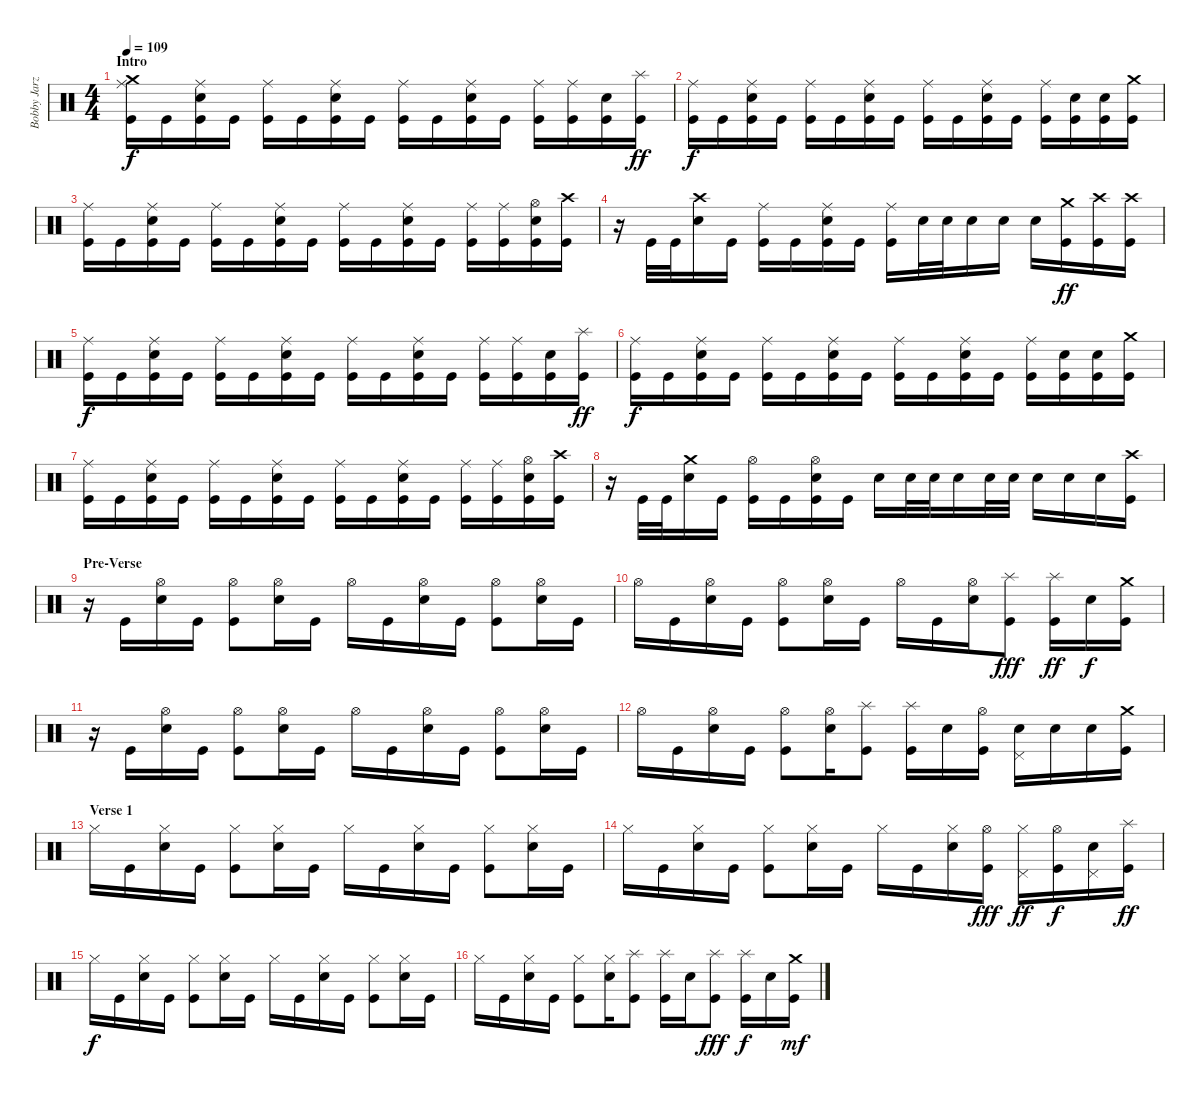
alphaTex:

\track ("Bobby Jarzombek" "Bobby Jarz") {instrument percussion}
\staff {score}
\articulation defaults
\ts (4 4)
\section ("" "Intro")
\tempo 109
\clef neutral
\ks c
("Kick (hit)" "Ride (middle)" "Crash medium (hit)").16{dy f} "Kick (hit)".16 ("Kick (hit)" "Ride (middle)" "Electric Snare (hit)").16 "Kick (hit)".16 ("Kick (hit)" "Ride (middle)").16 "Kick (hit)".16 ("Kick (hit)" "Ride (middle)" "Electric Snare (hit)").16 "Kick (hit)".16 ("Kick (hit)" "Ride (middle)").16 "Kick (hit)".16 ("Kick (hit)" "Ride (middle)" "Electric Snare (hit)").16 "Kick (hit)".16 ("Kick (hit)" "Ride (middle)").16 ("Kick (hit)" "Ride (middle)").16 ("Kick (hit)" "Electric Snare (hit)").16 ("Kick (hit)" "Splash (hit)").16{dy ff} |
("Kick (hit)" "Ride (middle)").16{dy f} "Kick (hit)".16 ("Kick (hit)" "Ride (middle)" "Electric Snare (hit)").16 "Kick (hit)".16 ("Kick (hit)" "Ride (middle)").16 "Kick (hit)".16 ("Kick (hit)" "Ride (middle)" "Electric Snare (hit)").16 "Kick (hit)".16 ("Kick (hit)" "Ride (middle)").16 "Kick (hit)".16 ("Kick (hit)" "Ride (middle)" "Electric Snare (hit)").16 "Kick (hit)".16 ("Kick (hit)" "Ride (middle)").16 ("Kick (hit)" "Electric Snare (hit)").16 ("Kick (hit)" "Electric Snare (hit)").16 ("Kick (hit)" "Crash medium (hit)").16 |
("Kick (hit)" "Ride (middle)").16 "Kick (hit)".16 ("Kick (hit)" "Ride (middle)" "Electric Snare (hit)").16 "Kick (hit)".16 ("Kick (hit)" "Ride (middle)").16 "Kick (hit)".16 ("Kick (hit)" "Ride (middle)" "Electric Snare (hit)").16 "Kick (hit)".16 ("Kick (hit)" "Ride (middle)").16 "Kick (hit)".16 ("Kick (hit)" "Ride (middle)" "Electric Snare (hit)").16 "Kick (hit)".16 ("Kick (hit)" "Ride (middle)").16 ("Kick (hit)" "Ride (middle)").16 ("Kick (hit)" "Hi-Hat (open)" "Electric Snare (hit)").16 ("Kick (hit)" "Crash high (hit)").16 |
r.16 "Kick (hit)".32 "Kick (hit)".32 ("Crash high (hit)" "Electric Snare (hit)").16 "Kick (hit)".16 ("Kick (hit)" "Ride (middle)").16 "Kick (hit)".16 ("Kick (hit)" "Ride (middle)" "Electric Snare (hit)").16 "Kick (hit)".16 ("Kick (hit)" "Ride (middle)").16 "Electric Snare (hit)".32 "Electric Snare (hit)".32 "Electric Snare (hit)".16 "Electric Snare (hit)".16 "Electric Snare (hit)".16 ("Crash medium (hit)" "Kick (hit)").16{dy ff} ("Crash high (hit)" "Kick (hit)").16 ("Crash high (hit)" "Kick (hit)").16 |
("Kick (hit)" "Ride (middle)").16{dy f} "Kick (hit)".16 ("Kick (hit)" "Ride (middle)" "Electric Snare (hit)").16 "Kick (hit)".16 ("Kick (hit)" "Ride (middle)").16 "Kick (hit)".16 ("Kick (hit)" "Ride (middle)" "Electric Snare (hit)").16 "Kick (hit)".16 ("Kick (hit)" "Ride (middle)").16 "Kick (hit)".16 ("Kick (hit)" "Ride (middle)" "Electric Snare (hit)").16 "Kick (hit)".16 ("Kick (hit)" "Ride (middle)").16 ("Kick (hit)" "Ride (middle)").16 ("Kick (hit)" "Electric Snare (hit)").16 ("Kick (hit)" "Splash (hit)").16{dy ff} |
("Kick (hit)" "Ride (middle)").16{dy f} "Kick (hit)".16 ("Kick (hit)" "Ride (middle)" "Electric Snare (hit)").16 "Kick (hit)".16 ("Kick (hit)" "Ride (middle)").16 "Kick (hit)".16 ("Kick (hit)" "Ride (middle)" "Electric Snare (hit)").16 "Kick (hit)".16 ("Kick (hit)" "Ride (middle)").16 "Kick (hit)".16 ("Kick (hit)" "Ride (middle)" "Electric Snare (hit)").16 "Kick (hit)".16 ("Kick (hit)" "Ride (middle)").16 ("Kick (hit)" "Electric Snare (hit)").16 ("Kick (hit)" "Electric Snare (hit)").16 ("Kick (hit)" "Crash medium (hit)").16 |
("Kick (hit)" "Ride (middle)").16 "Kick (hit)".16 ("Kick (hit)" "Ride (middle)" "Electric Snare (hit)").16 "Kick (hit)".16 ("Kick (hit)" "Ride (middle)").16 "Kick (hit)".16 ("Kick (hit)" "Ride (middle)" "Electric Snare (hit)").16 "Kick (hit)".16 ("Kick (hit)" "Ride (middle)").16 "Kick (hit)".16 ("Kick (hit)" "Ride (middle)" "Electric Snare (hit)").16 "Kick (hit)".16 ("Kick (hit)" "Ride (middle)").16 ("Kick (hit)" "Ride (middle)").16 ("Kick (hit)" "Hi-Hat (open)" "Electric Snare (hit)").16 ("Kick (hit)" "Crash high (hit)").16 |
r.16 "Kick (hit)".32 "Kick (hit)".32 ("Crash medium (hit)" "Electric Snare (hit)").16 "Kick (hit)".16 ("Kick (hit)" "Hi-Hat (open)").16 "Kick (hit)".16 ("Kick (hit)" "Electric Snare (hit)" "Hi-Hat (open)").16 "Kick (hit)".16 "Electric Snare (hit)".16 "Electric Snare (hit)".32 "Electric Snare (hit)".32 "Electric Snare (hit)".16 "Electric Snare (hit)".32 "Electric Snare (hit)".32 "Electric Snare (hit)".16 "Electric Snare (hit)".16 "Electric Snare (hit)".16 ("Crash high (hit)" "Kick (hit)").16 |
\section ("" "Pre-Verse")
r.16 "Kick (hit)".16 ("Hi-Hat (open)" "Electric Snare (hit)").16 "Kick (hit)".16 ("Hi-Hat (open)" "Kick (hit)").8 ("Hi-Hat (open)" "Electric Snare (hit)").16 "Kick (hit)".16 "Hi-Hat (open)".16 "Kick (hit)".16 ("Hi-Hat (open)" "Electric Snare (hit)").16 "Kick (hit)".16 ("Hi-Hat (open)" "Kick (hit)").8 ("Hi-Hat (open)" "Electric Snare (hit)").16 "Kick (hit)".16 |
"Hi-Hat (open)".16 "Kick (hit)".16 ("Hi-Hat (open)" "Electric Snare (hit)").16 "Kick (hit)".16 ("Hi-Hat (open)" "Kick (hit)").8 ("Hi-Hat (open)" "Electric Snare (hit)").16 "Kick (hit)".16 "Hi-Hat (open)".16 "Kick (hit)".16 ("Hi-Hat (open)" "Electric Snare (hit)").16 ("Splash (hit)" "Kick (hit)").8{dy fff} ("Splash (hit)" "Kick (hit)").16{dy ff} "Electric Snare (hit)".16{dy f} ("Crash medium (hit)" "Kick (hit)").16 |
r.16 "Kick (hit)".16 ("Hi-Hat (open)" "Electric Snare (hit)").16 "Kick (hit)".16 ("Hi-Hat (open)" "Kick (hit)").8 ("Hi-Hat (open)" "Electric Snare (hit)").16 "Kick (hit)".16 "Hi-Hat (open)".16 "Kick (hit)".16 ("Hi-Hat (open)" "Electric Snare (hit)").16 "Kick (hit)".16 ("Hi-Hat (open)" "Kick (hit)").8 ("Hi-Hat (open)" "Electric Snare (hit)").16 "Kick (hit)".16 |
"Hi-Hat (open)".16 "Kick (hit)".16 ("Hi-Hat (open)" "Electric Snare (hit)").16 "Kick (hit)".16 ("Hi-Hat (open)" "Kick (hit)").8 ("Hi-Hat (open)" "Electric Snare (hit)").16 ("Splash (hit)" "Kick (hit)").8 ("Splash (hit)" "Kick (hit)").16 "Electric Snare (hit)".16 ("Hi-Hat (open)" "Kick (hit)").16 ("Electric Snare (hit)" "Pedal Hi-Hat (hit)").16 "Electric Snare (hit)".16 "Electric Snare (hit)".16 ("Crash medium (hit)" "Kick (hit)").16 |
\section ("" "Verse 1")
"Hi-Hat (closed)".16 "Kick (hit)".16 ("Hi-Hat (closed)" "Electric Snare (hit)").16 "Kick (hit)".16 ("Hi-Hat (closed)" "Kick (hit)").8 ("Hi-Hat (closed)" "Electric Snare (hit)").16 "Kick (hit)".16 "Hi-Hat (closed)".16 "Kick (hit)".16 ("Hi-Hat (closed)" "Electric Snare (hit)").16 "Kick (hit)".16 ("Hi-Hat (closed)" "Kick (hit)").8 ("Hi-Hat (closed)" "Electric Snare (hit)").16 "Kick (hit)".16 |
"Hi-Hat (closed)".16 "Kick (hit)".16 ("Hi-Hat (closed)" "Electric Snare (hit)").16 "Kick (hit)".16 ("Hi-Hat (closed)" "Kick (hit)").8 ("Hi-Hat (closed)" "Electric Snare (hit)").16 "Kick (hit)".16 "Hi-Hat (closed)".16 "Kick (hit)".16 ("Hi-Hat (closed)" "Electric Snare (hit)").16 ("Hi-Hat (open)" "Kick (hit)").16{dy fff} ("Hi-Hat (closed)" "Pedal Hi-Hat (hit)").16{dy ff} ("Hi-Hat (open)" "Kick (hit)").16{dy f} ("Pedal Hi-Hat (hit)" "Electric Snare (hit)").16 ("Splash (hit)" "Kick (hit)").16{dy ff} |
"Hi-Hat (closed)".16{dy f} "Kick (hit)".16 ("Hi-Hat (closed)" "Electric Snare (hit)").16 "Kick (hit)".16 ("Hi-Hat (closed)" "Kick (hit)").8 ("Hi-Hat (closed)" "Electric Snare (hit)").16 "Kick (hit)".16 "Hi-Hat (closed)".16 "Kick (hit)".16 ("Hi-Hat (closed)" "Electric Snare (hit)").16 "Kick (hit)".16 ("Hi-Hat (closed)" "Kick (hit)").8 ("Hi-Hat (closed)" "Electric Snare (hit)").16 "Kick (hit)".16 |
"Hi-Hat (closed)".16 "Kick (hit)".16 ("Hi-Hat (closed)" "Electric Snare (hit)").16 "Kick (hit)".16 ("Hi-Hat (closed)" "Kick (hit)").8 ("Hi-Hat (closed)" "Electric Snare (hit)").16 ("Splash (hit)" "Kick (hit)").8 ("Splash (hit)" "Kick (hit)").16 "Electric Snare (hit)".16 ("Splash (hit)" "Kick (hit)").8{dy fff} ("Splash (hit)" "Kick (hit)").16{dy f} "Electric Snare (hit)".16 ("Crash medium (hit)" "Kick (hit)").16{dy mf}
